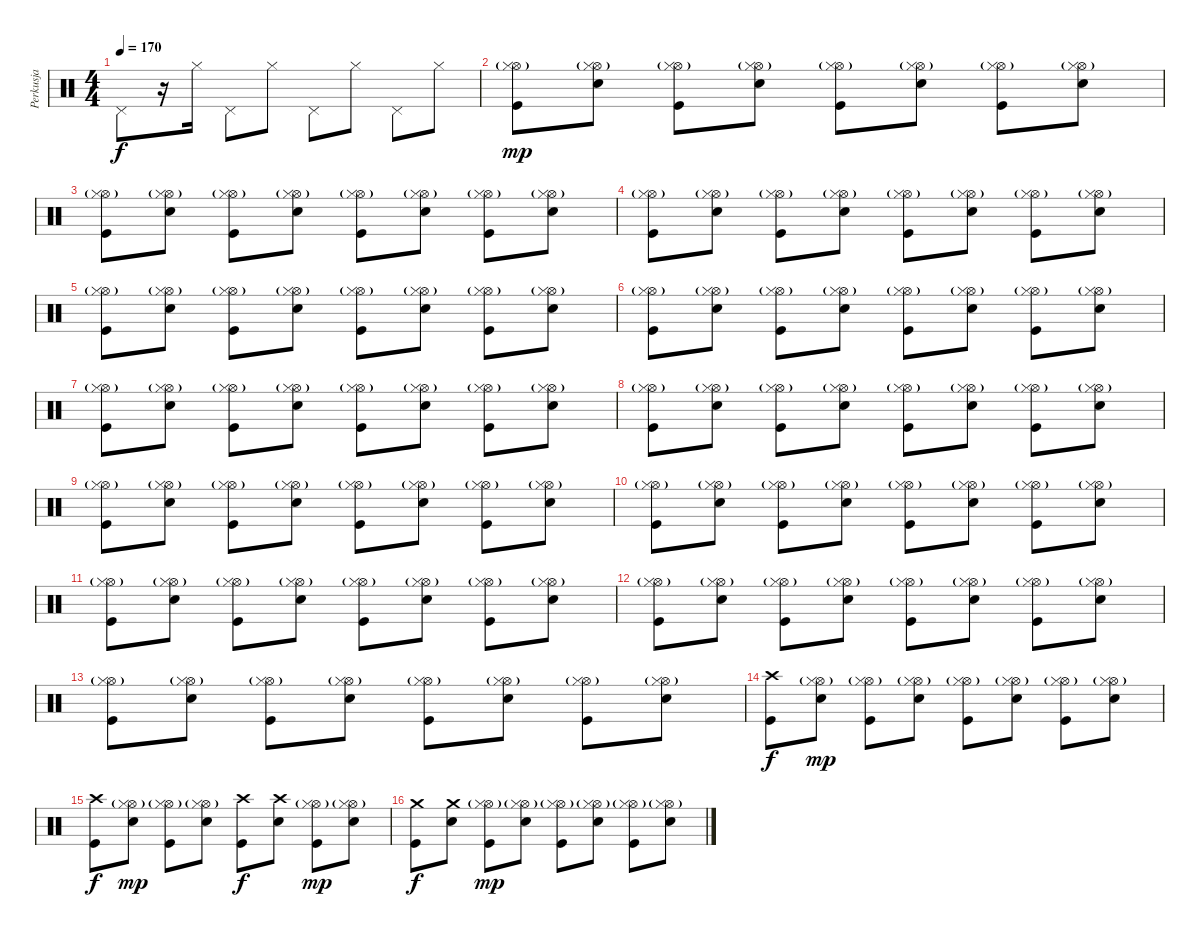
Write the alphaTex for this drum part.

\track ("Perkusja" "Perkusja") {instrument percussion}
\staff {score}
\articulation defaults
\ts (4 4)
\tempo 170
\clef neutral
\ks c "Pedal Hi-Hat (hit)".8{dy f}
r.16 "Hi-Hat (closed)".16 "Pedal Hi-Hat (hit)".8 "Hi-Hat (closed)".8 "Pedal Hi-Hat (hit)".8 "Hi-Hat (closed)".8 "Pedal Hi-Hat (hit)".8 "Hi-Hat (closed)".8 |
("Hi-Hat (open)"{g} "Hi-Hat (closed)"{g} "Kick (hit)").8{dy mp} ("Hi-Hat (open)"{g} "Hi-Hat (closed)"{g} "Electric Snare (hit)").8 ("Hi-Hat (open)"{g} "Hi-Hat (closed)"{g} "Kick (hit)").8 ("Hi-Hat (open)"{g} "Hi-Hat (closed)"{g} "Electric Snare (hit)").8 ("Hi-Hat (open)"{g} "Hi-Hat (closed)"{g} "Kick (hit)").8 ("Hi-Hat (open)"{g} "Hi-Hat (closed)"{g} "Electric Snare (hit)").8 ("Hi-Hat (open)"{g} "Hi-Hat (closed)"{g} "Kick (hit)").8 ("Hi-Hat (open)"{g} "Hi-Hat (closed)"{g} "Electric Snare (hit)").8 |
("Hi-Hat (open)"{g} "Hi-Hat (closed)"{g} "Kick (hit)").8 ("Hi-Hat (open)"{g} "Hi-Hat (closed)"{g} "Electric Snare (hit)").8 ("Hi-Hat (open)"{g} "Hi-Hat (closed)"{g} "Kick (hit)").8 ("Hi-Hat (open)"{g} "Hi-Hat (closed)"{g} "Electric Snare (hit)").8 ("Hi-Hat (open)"{g} "Hi-Hat (closed)"{g} "Kick (hit)").8 ("Hi-Hat (open)"{g} "Hi-Hat (closed)"{g} "Electric Snare (hit)").8 ("Hi-Hat (open)"{g} "Hi-Hat (closed)"{g} "Kick (hit)").8 ("Hi-Hat (open)"{g} "Hi-Hat (closed)"{g} "Electric Snare (hit)").8 |
("Hi-Hat (open)"{g} "Hi-Hat (closed)"{g} "Kick (hit)").8 ("Hi-Hat (open)"{g} "Hi-Hat (closed)"{g} "Electric Snare (hit)").8 ("Hi-Hat (open)"{g} "Hi-Hat (closed)"{g} "Kick (hit)").8 ("Hi-Hat (open)"{g} "Hi-Hat (closed)"{g} "Electric Snare (hit)").8 ("Hi-Hat (open)"{g} "Hi-Hat (closed)"{g} "Kick (hit)").8 ("Hi-Hat (open)"{g} "Hi-Hat (closed)"{g} "Electric Snare (hit)").8 ("Hi-Hat (open)"{g} "Hi-Hat (closed)"{g} "Kick (hit)").8 ("Hi-Hat (open)"{g} "Hi-Hat (closed)"{g} "Electric Snare (hit)").8 |
("Hi-Hat (open)"{g} "Hi-Hat (closed)"{g} "Kick (hit)").8 ("Hi-Hat (open)"{g} "Hi-Hat (closed)"{g} "Electric Snare (hit)").8 ("Hi-Hat (open)"{g} "Hi-Hat (closed)"{g} "Kick (hit)").8 ("Hi-Hat (open)"{g} "Hi-Hat (closed)"{g} "Electric Snare (hit)").8 ("Hi-Hat (open)"{g} "Hi-Hat (closed)"{g} "Kick (hit)").8 ("Hi-Hat (open)"{g} "Hi-Hat (closed)"{g} "Electric Snare (hit)").8 ("Hi-Hat (open)"{g} "Hi-Hat (closed)"{g} "Kick (hit)").8 ("Hi-Hat (open)"{g} "Hi-Hat (closed)"{g} "Electric Snare (hit)").8 |
("Hi-Hat (open)"{g} "Hi-Hat (closed)"{g} "Kick (hit)").8 ("Hi-Hat (open)"{g} "Hi-Hat (closed)"{g} "Electric Snare (hit)").8 ("Hi-Hat (open)"{g} "Hi-Hat (closed)"{g} "Kick (hit)").8 ("Hi-Hat (open)"{g} "Hi-Hat (closed)"{g} "Electric Snare (hit)").8 ("Hi-Hat (open)"{g} "Hi-Hat (closed)"{g} "Kick (hit)").8 ("Hi-Hat (open)"{g} "Hi-Hat (closed)"{g} "Electric Snare (hit)").8 ("Hi-Hat (open)"{g} "Hi-Hat (closed)"{g} "Kick (hit)").8 ("Hi-Hat (open)"{g} "Hi-Hat (closed)"{g} "Electric Snare (hit)").8 |
("Hi-Hat (open)"{g} "Hi-Hat (closed)"{g} "Kick (hit)").8 ("Hi-Hat (open)"{g} "Hi-Hat (closed)"{g} "Electric Snare (hit)").8 ("Hi-Hat (open)"{g} "Hi-Hat (closed)"{g} "Kick (hit)").8 ("Hi-Hat (open)"{g} "Hi-Hat (closed)"{g} "Electric Snare (hit)").8 ("Hi-Hat (open)"{g} "Hi-Hat (closed)"{g} "Kick (hit)").8 ("Hi-Hat (open)"{g} "Hi-Hat (closed)"{g} "Electric Snare (hit)").8 ("Hi-Hat (open)"{g} "Hi-Hat (closed)"{g} "Kick (hit)").8 ("Hi-Hat (open)"{g} "Hi-Hat (closed)"{g} "Electric Snare (hit)").8 |
("Hi-Hat (open)"{g} "Hi-Hat (closed)"{g} "Kick (hit)").8 ("Hi-Hat (open)"{g} "Hi-Hat (closed)"{g} "Electric Snare (hit)").8 ("Hi-Hat (open)"{g} "Hi-Hat (closed)"{g} "Kick (hit)").8 ("Hi-Hat (open)"{g} "Hi-Hat (closed)"{g} "Electric Snare (hit)").8 ("Hi-Hat (open)"{g} "Hi-Hat (closed)"{g} "Kick (hit)").8 ("Hi-Hat (open)"{g} "Hi-Hat (closed)"{g} "Electric Snare (hit)").8 ("Hi-Hat (open)"{g} "Hi-Hat (closed)"{g} "Kick (hit)").8 ("Hi-Hat (open)"{g} "Hi-Hat (closed)"{g} "Electric Snare (hit)").8 |
("Hi-Hat (open)"{g} "Hi-Hat (closed)"{g} "Kick (hit)").8 ("Hi-Hat (open)"{g} "Hi-Hat (closed)"{g} "Electric Snare (hit)").8 ("Hi-Hat (open)"{g} "Hi-Hat (closed)"{g} "Kick (hit)").8 ("Hi-Hat (open)"{g} "Hi-Hat (closed)"{g} "Electric Snare (hit)").8 ("Hi-Hat (open)"{g} "Hi-Hat (closed)"{g} "Kick (hit)").8 ("Hi-Hat (open)"{g} "Hi-Hat (closed)"{g} "Electric Snare (hit)").8 ("Hi-Hat (open)"{g} "Hi-Hat (closed)"{g} "Kick (hit)").8 ("Hi-Hat (open)"{g} "Hi-Hat (closed)"{g} "Electric Snare (hit)").8 |
("Hi-Hat (open)"{g} "Hi-Hat (closed)"{g} "Kick (hit)").8 ("Hi-Hat (open)"{g} "Hi-Hat (closed)"{g} "Electric Snare (hit)").8 ("Hi-Hat (open)"{g} "Hi-Hat (closed)"{g} "Kick (hit)").8 ("Hi-Hat (open)"{g} "Hi-Hat (closed)"{g} "Electric Snare (hit)").8 ("Hi-Hat (open)"{g} "Hi-Hat (closed)"{g} "Kick (hit)").8 ("Hi-Hat (open)"{g} "Hi-Hat (closed)"{g} "Electric Snare (hit)").8 ("Hi-Hat (open)"{g} "Hi-Hat (closed)"{g} "Kick (hit)").8 ("Hi-Hat (open)"{g} "Hi-Hat (closed)"{g} "Electric Snare (hit)").8 |
("Hi-Hat (open)"{g} "Hi-Hat (closed)"{g} "Kick (hit)").8 ("Hi-Hat (open)"{g} "Hi-Hat (closed)"{g} "Electric Snare (hit)").8 ("Hi-Hat (open)"{g} "Hi-Hat (closed)"{g} "Kick (hit)").8 ("Hi-Hat (open)"{g} "Hi-Hat (closed)"{g} "Electric Snare (hit)").8 ("Hi-Hat (open)"{g} "Hi-Hat (closed)"{g} "Kick (hit)").8 ("Hi-Hat (open)"{g} "Hi-Hat (closed)"{g} "Electric Snare (hit)").8 ("Hi-Hat (open)"{g} "Hi-Hat (closed)"{g} "Kick (hit)").8 ("Hi-Hat (open)"{g} "Hi-Hat (closed)"{g} "Electric Snare (hit)").8 |
("Hi-Hat (open)"{g} "Hi-Hat (closed)"{g} "Kick (hit)").8 ("Hi-Hat (open)"{g} "Hi-Hat (closed)"{g} "Electric Snare (hit)").8 ("Hi-Hat (open)"{g} "Hi-Hat (closed)"{g} "Kick (hit)").8 ("Hi-Hat (open)"{g} "Hi-Hat (closed)"{g} "Electric Snare (hit)").8 ("Hi-Hat (open)"{g} "Hi-Hat (closed)"{g} "Kick (hit)").8 ("Hi-Hat (open)"{g} "Hi-Hat (closed)"{g} "Electric Snare (hit)").8 ("Hi-Hat (open)"{g} "Hi-Hat (closed)"{g} "Kick (hit)").8 ("Hi-Hat (open)"{g} "Hi-Hat (closed)"{g} "Electric Snare (hit)").8 |
("Hi-Hat (open)"{g} "Hi-Hat (closed)"{g} "Kick (hit)").8 ("Hi-Hat (open)"{g} "Hi-Hat (closed)"{g} "Electric Snare (hit)").8 ("Hi-Hat (open)"{g} "Hi-Hat (closed)"{g} "Kick (hit)").8 ("Hi-Hat (open)"{g} "Hi-Hat (closed)"{g} "Electric Snare (hit)").8 ("Hi-Hat (open)"{g} "Hi-Hat (closed)"{g} "Kick (hit)").8 ("Hi-Hat (open)"{g} "Hi-Hat (closed)"{g} "Electric Snare (hit)").8 ("Hi-Hat (open)"{g} "Hi-Hat (closed)"{g} "Kick (hit)").8 ("Hi-Hat (open)"{g} "Hi-Hat (closed)"{g} "Electric Snare (hit)").8 |
("Crash high (hit)" "Kick (hit)").8{dy f} ("Hi-Hat (open)"{g} "Hi-Hat (closed)"{g} "Electric Snare (hit)").8{dy mp} ("Hi-Hat (open)"{g} "Hi-Hat (closed)"{g} "Kick (hit)").8 ("Hi-Hat (open)"{g} "Hi-Hat (closed)"{g} "Electric Snare (hit)").8 ("Hi-Hat (open)"{g} "Hi-Hat (closed)"{g} "Kick (hit)").8 ("Hi-Hat (open)"{g} "Hi-Hat (closed)"{g} "Electric Snare (hit)").8 ("Hi-Hat (open)"{g} "Hi-Hat (closed)"{g} "Kick (hit)").8 ("Hi-Hat (open)"{g} "Hi-Hat (closed)"{g} "Electric Snare (hit)").8 |
("Crash high (hit)" "Kick (hit)").8{dy f} ("Hi-Hat (open)"{g} "Hi-Hat (closed)"{g} "Electric Snare (hit)").8{dy mp} ("Hi-Hat (open)"{g} "Hi-Hat (closed)"{g} "Kick (hit)").8 ("Hi-Hat (open)"{g} "Hi-Hat (closed)"{g} "Electric Snare (hit)").8 ("Crash high (hit)" "Kick (hit)").8{dy f} ("Crash high (hit)" "Electric Snare (hit)").8 ("Hi-Hat (open)"{g} "Hi-Hat (closed)"{g} "Kick (hit)").8{dy mp} ("Hi-Hat (open)"{g} "Hi-Hat (closed)"{g} "Electric Snare (hit)").8 |
("Crash medium (hit)" "Kick (hit)").8{dy f} ("Crash medium (hit)" "Electric Snare (hit)").8 ("Hi-Hat (open)"{g} "Hi-Hat (closed)"{g} "Kick (hit)").8{dy mp} ("Hi-Hat (open)"{g} "Hi-Hat (closed)"{g} "Electric Snare (hit)").8 ("Hi-Hat (open)"{g} "Hi-Hat (closed)"{g} "Kick (hit)").8 ("Hi-Hat (open)"{g} "Hi-Hat (closed)"{g} "Electric Snare (hit)").8 ("Hi-Hat (open)"{g} "Hi-Hat (closed)"{g} "Kick (hit)").8 ("Hi-Hat (open)"{g} "Hi-Hat (closed)"{g} "Electric Snare (hit)").8
